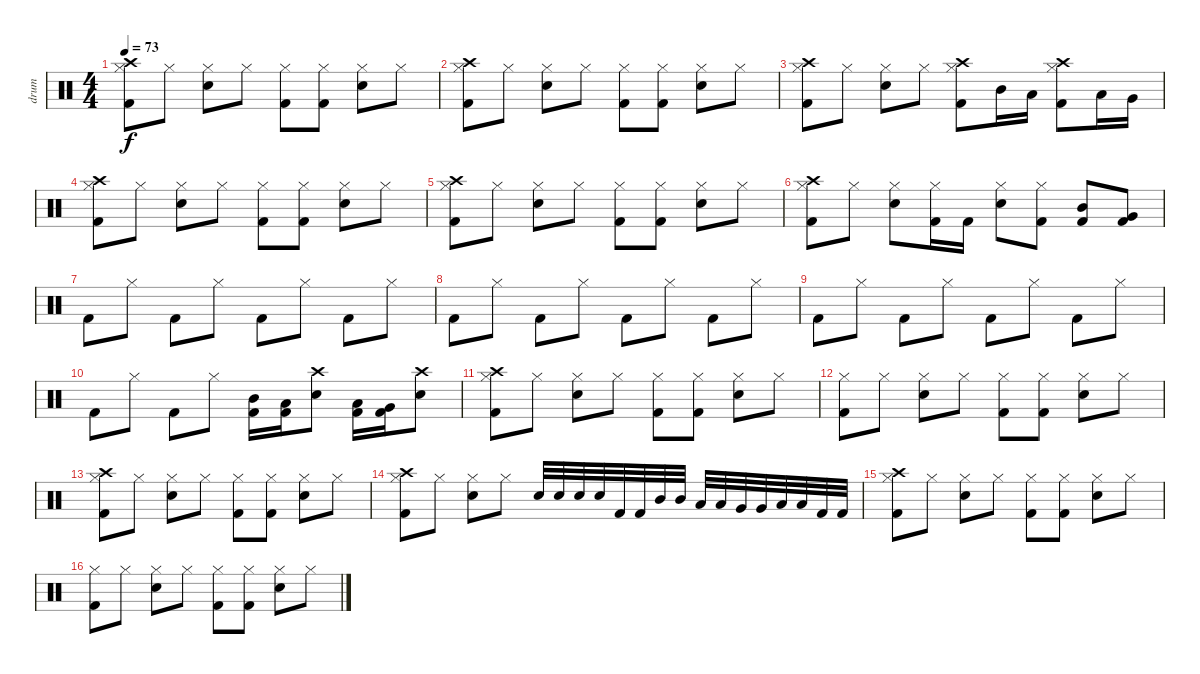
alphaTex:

\track ("drum" "drum") {instrument percussion}
\staff {score}
\articulation defaults
\ts (4 4)
\tempo 73
\clef neutral
\ks c
("Crash high (hit)" "Hi-Hat (closed)" "Kick (hit) 2").8{dy f} "Hi-Hat (closed)".8 ("Hi-Hat (closed)" "Electric Snare (hit)").8 "Hi-Hat (closed)".8 ("Hi-Hat (closed)" "Kick (hit) 2").8 ("Hi-Hat (closed)" "Kick (hit) 2").8 ("Hi-Hat (closed)" "Electric Snare (hit)").8 "Hi-Hat (closed)".8 |
("Crash high (hit)" "Hi-Hat (closed)" "Kick (hit) 2").8 "Hi-Hat (closed)".8 ("Hi-Hat (closed)" "Electric Snare (hit)").8 "Hi-Hat (closed)".8 ("Hi-Hat (closed)" "Kick (hit) 2").8 ("Hi-Hat (closed)" "Kick (hit) 2").8 ("Hi-Hat (closed)" "Electric Snare (hit)").8 "Hi-Hat (closed)".8 |
("Crash high (hit)" "Hi-Hat (closed)" "Kick (hit) 2").8 "Hi-Hat (closed)".8 ("Hi-Hat (closed)" "Electric Snare (hit)").8 "Hi-Hat (closed)".8 ("Crash high (hit)" "Hi-Hat (closed)" "Kick (hit) 2").8 "Mid Tom (hit)".16 "Low Tom (hit)".16 ("Crash high (hit)" "Hi-Hat (closed)" "Kick (hit) 2").8 "Low Tom (hit)".16 "Very Low Tom (hit)".16 |
("Crash high (hit)" "Hi-Hat (closed)" "Kick (hit) 2").8 "Hi-Hat (closed)".8 ("Hi-Hat (closed)" "Electric Snare (hit)").8 "Hi-Hat (closed)".8 ("Hi-Hat (closed)" "Kick (hit) 2").8 ("Hi-Hat (closed)" "Kick (hit) 2").8 ("Hi-Hat (closed)" "Electric Snare (hit)").8 "Hi-Hat (closed)".8 |
("Crash high (hit)" "Hi-Hat (closed)" "Kick (hit) 2").8 "Hi-Hat (closed)".8 ("Hi-Hat (closed)" "Electric Snare (hit)").8 "Hi-Hat (closed)".8 ("Hi-Hat (closed)" "Kick (hit) 2").8 ("Hi-Hat (closed)" "Kick (hit) 2").8 ("Hi-Hat (closed)" "Electric Snare (hit)").8 "Hi-Hat (closed)".8 |
("Crash high (hit)" "Hi-Hat (closed)" "Kick (hit) 2").8 "Hi-Hat (closed)".8 ("Hi-Hat (closed)" "Electric Snare (hit)").8 ("Hi-Hat (closed)" "Kick (hit) 2").16 "Kick (hit) 2".16 ("Hi-Hat (closed)" "Electric Snare (hit)").8 ("Hi-Hat (closed)" "Kick (hit) 2").8 ("Mid Tom (hit)" "Kick (hit) 2").8 ("Very Low Tom (hit)" "Kick (hit) 2").8 |
"Kick (hit) 2".8 "Hi-Hat (closed)".8 "Kick (hit) 2".8 "Hi-Hat (closed)".8 "Kick (hit) 2".8 "Hi-Hat (closed)".8 "Kick (hit) 2".8 "Hi-Hat (closed)".8 |
"Kick (hit) 2".8 "Hi-Hat (closed)".8 "Kick (hit) 2".8 "Hi-Hat (closed)".8 "Kick (hit) 2".8 "Hi-Hat (closed)".8 "Kick (hit) 2".8 "Hi-Hat (closed)".8 |
"Kick (hit) 2".8 "Hi-Hat (closed)".8 "Kick (hit) 2".8 "Hi-Hat (closed)".8 "Kick (hit) 2".8 "Hi-Hat (closed)".8 "Kick (hit) 2".8 "Hi-Hat (closed)".8 |
"Kick (hit) 2".8 "Hi-Hat (closed)".8 "Kick (hit) 2".8 "Hi-Hat (closed)".8 ("Mid Tom (hit)" "Kick (hit) 2").16 ("Low Tom (hit)" "Kick (hit) 2").16 ("Crash high (hit)" "Electric Snare (hit)").8 ("Low Tom (hit)" "Kick (hit) 2").16 ("Very Low Tom (hit)" "Kick (hit) 2").16 ("Crash high (hit)" "Electric Snare (hit)").8 |
("Crash high (hit)" "Hi-Hat (closed)" "Kick (hit) 2").8 "Hi-Hat (closed)".8 ("Hi-Hat (closed)" "Electric Snare (hit)").8 "Hi-Hat (closed)".8 ("Hi-Hat (closed)" "Kick (hit) 2").8 ("Hi-Hat (closed)" "Kick (hit) 2").8 ("Hi-Hat (closed)" "Electric Snare (hit)").8 "Hi-Hat (closed)".8 |
("Hi-Hat (closed)" "Kick (hit) 2").8 "Hi-Hat (closed)".8 ("Hi-Hat (closed)" "Electric Snare (hit)").8 "Hi-Hat (closed)".8 ("Hi-Hat (closed)" "Kick (hit) 2").8 ("Hi-Hat (closed)" "Kick (hit) 2").8 ("Hi-Hat (closed)" "Electric Snare (hit)").8 "Hi-Hat (closed)".8 |
("Crash high (hit)" "Hi-Hat (closed)" "Kick (hit) 2").8 "Hi-Hat (closed)".8 ("Hi-Hat (closed)" "Electric Snare (hit)").8 "Hi-Hat (closed)".8 ("Hi-Hat (closed)" "Kick (hit) 2").8 ("Hi-Hat (closed)" "Kick (hit) 2").8 ("Hi-Hat (closed)" "Electric Snare (hit)").8 "Hi-Hat (closed)".8 |
("Crash high (hit)" "Hi-Hat (closed)" "Kick (hit) 2").8 "Hi-Hat (closed)".8 ("Hi-Hat (closed)" "Electric Snare (hit)").8 "Hi-Hat (closed)".8 "Electric Snare (hit)".32 "Electric Snare (hit)".32 "Electric Snare (hit)".32 "Electric Snare (hit)".32 "Kick (hit) 2".32 "Kick (hit) 2".32 "Mid Tom (hit)".32 "Mid Tom (hit)".32 "Low Tom (hit)".32 "Low Tom (hit)".32 "Very Low Tom (hit)".32 "Very Low Tom (hit)".32 "Low Floor Tom (hit)".32 "Low Floor Tom (hit)".32 "Kick (hit) 2".32 "Kick (hit) 2".32 |
("Crash high (hit)" "Hi-Hat (closed)" "Kick (hit) 2").8 "Hi-Hat (closed)".8 ("Hi-Hat (closed)" "Electric Snare (hit)").8 "Hi-Hat (closed)".8 ("Hi-Hat (closed)" "Kick (hit) 2").8 ("Hi-Hat (closed)" "Kick (hit) 2").8 ("Hi-Hat (closed)" "Electric Snare (hit)").8 "Hi-Hat (closed)".8 |
("Hi-Hat (closed)" "Kick (hit) 2").8 "Hi-Hat (closed)".8 ("Hi-Hat (closed)" "Electric Snare (hit)").8 "Hi-Hat (closed)".8 ("Hi-Hat (closed)" "Kick (hit) 2").8 ("Hi-Hat (closed)" "Kick (hit) 2").8 ("Hi-Hat (closed)" "Electric Snare (hit)").8 "Hi-Hat (closed)".8
